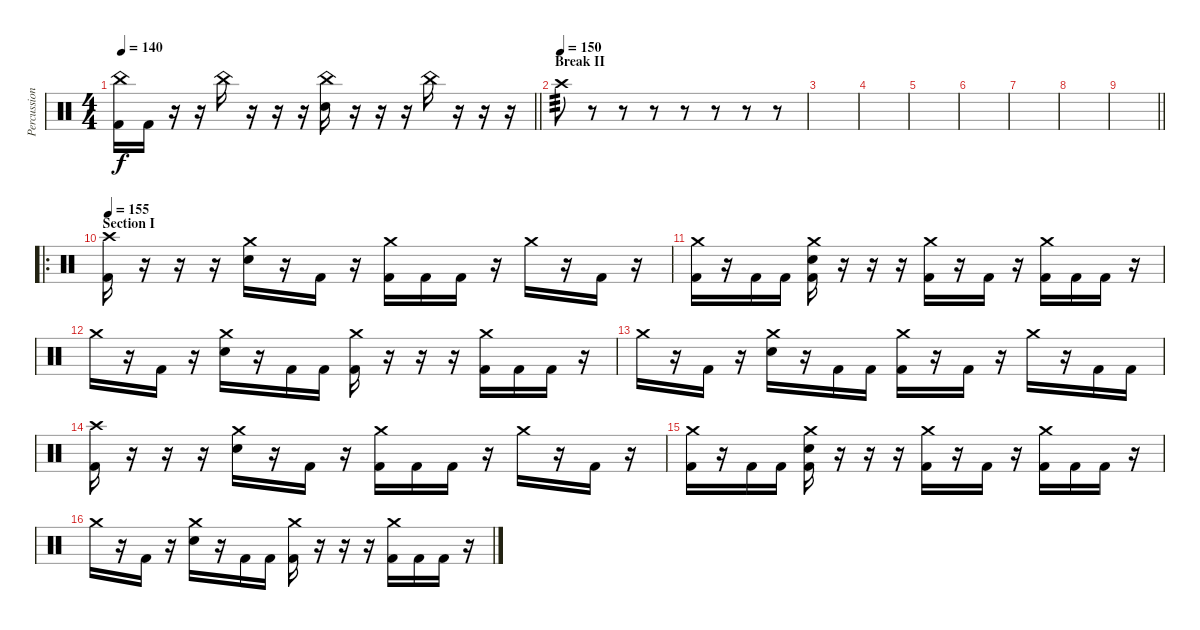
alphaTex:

\track ("Percussion" "Percussion") {instrument percussion}
\staff {score}
\articulation defaults
\ts (4 4)
\tempo 140
\clef neutral
\barLineRight lightlight
\ks c
("China (hit)" "Kick (hit) 2").16{dy f} "Kick (hit) 2".16 r.16 r.16 "China (hit)".16 r.16 r.16 r.16 ("China (hit)" "Electric Snare (hit)").16 r.16 r.16 r.16 "China (hit)".16 r.16 r.16 r.16 |
\section ("" "Break II")
\tempo (150)
"Crash high (hit)".8{tp 3} r.8 r.8 r.8 r.8 r.8 r.8 r.8 |
|
|
|
|
|
|
\barLineRight lightlight
|
\ro
\section ("" "Section I")
\tempo 155
("Crash high (hit)" "Kick (hit) 2").16 r.16 r.16 r.16 ("Crash medium (hit)" "Electric Snare (hit)").16 r.16 "Kick (hit) 2".16 r.16 ("Crash medium (hit)" "Kick (hit) 2").16 "Kick (hit) 2".16 "Kick (hit) 2".16 r.16 "Crash medium (hit)".16 r.16 "Kick (hit) 2".16 r.16 |
("Crash medium (hit)" "Kick (hit) 2").16 r.16 "Kick (hit) 2".16 "Kick (hit) 2".16 ("Crash medium (hit)" "Electric Snare (hit)" "Kick (hit) 2").16 r.16 r.16 r.16 ("Crash medium (hit)" "Kick (hit) 2").16 r.16 "Kick (hit) 2".16 r.16 ("Crash medium (hit)" "Kick (hit) 2").16 "Kick (hit) 2".16 "Kick (hit) 2".16 r.16 |
"Crash medium (hit)".16 r.16 "Kick (hit) 2".16 r.16 ("Crash medium (hit)" "Electric Snare (hit)").16 r.16 "Kick (hit) 2".16 "Kick (hit) 2".16 ("Crash medium (hit)" "Kick (hit) 2").16 r.16 r.16 r.16 ("Crash medium (hit)" "Kick (hit) 2").16 "Kick (hit) 2".16 "Kick (hit) 2".16 r.16 |
"Crash medium (hit)".16 r.16 "Kick (hit) 2".16 r.16 ("Crash medium (hit)" "Electric Snare (hit)").16 r.16 "Kick (hit) 2".16 "Kick (hit) 2".16 ("Crash medium (hit)" "Kick (hit) 2").16 r.16 "Kick (hit) 2".16 r.16 "Crash medium (hit)".16 r.16 "Kick (hit) 2".16 "Kick (hit) 2".16 |
("Crash high (hit)" "Kick (hit) 2").16 r.16 r.16 r.16 ("Crash medium (hit)" "Electric Snare (hit)").16 r.16 "Kick (hit) 2".16 r.16 ("Crash medium (hit)" "Kick (hit) 2").16 "Kick (hit) 2".16 "Kick (hit) 2".16 r.16 "Crash medium (hit)".16 r.16 "Kick (hit) 2".16 r.16 |
("Crash medium (hit)" "Kick (hit) 2").16 r.16 "Kick (hit) 2".16 "Kick (hit) 2".16 ("Crash medium (hit)" "Electric Snare (hit)" "Kick (hit) 2").16 r.16 r.16 r.16 ("Crash medium (hit)" "Kick (hit) 2").16 r.16 "Kick (hit) 2".16 r.16 ("Crash medium (hit)" "Kick (hit) 2").16 "Kick (hit) 2".16 "Kick (hit) 2".16 r.16 |
"Crash medium (hit)".16 r.16 "Kick (hit) 2".16 r.16 ("Crash medium (hit)" "Electric Snare (hit)").16 r.16 "Kick (hit) 2".16 "Kick (hit) 2".16 ("Crash medium (hit)" "Kick (hit) 2").16 r.16 r.16 r.16 ("Crash medium (hit)" "Kick (hit) 2").16 "Kick (hit) 2".16 "Kick (hit) 2".16 r.16
